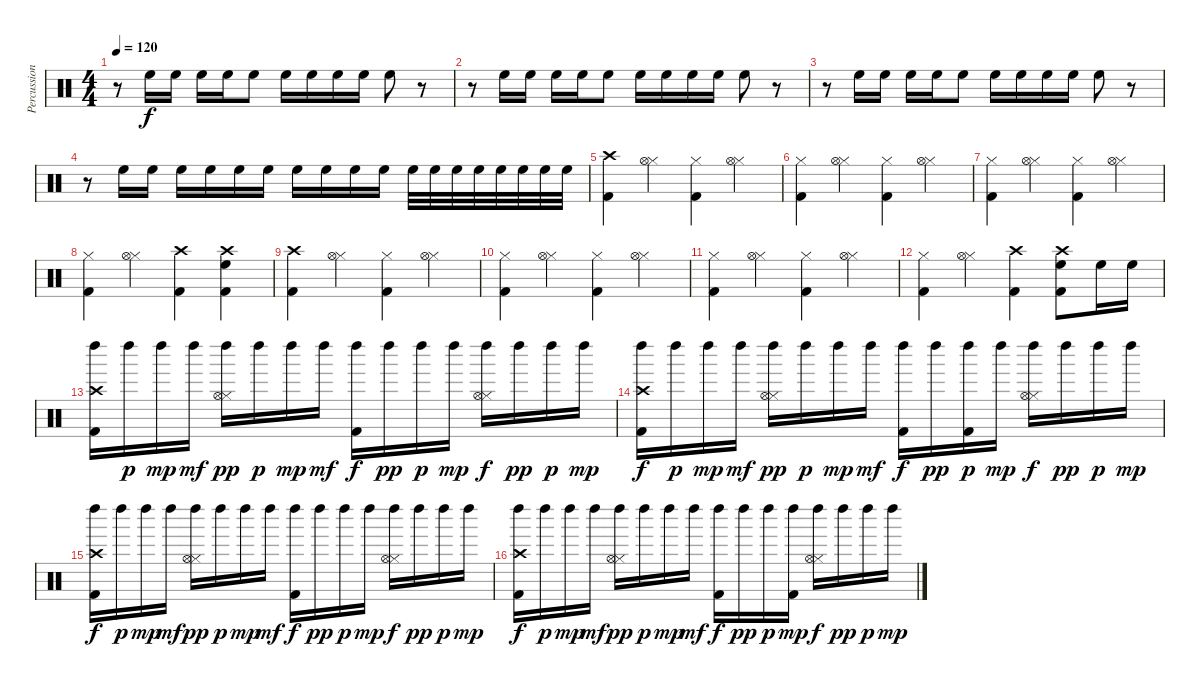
\track ("Percussion" "Percussion") {instrument percussion}
\staff {score}
\articulation defaults
\ts (4 4)
\tempo 120
\clef neutral
\ks c
r.8{dy f} "High Floor Tom (hit)".16 "High Floor Tom (hit)".16 "High Floor Tom (hit)".16 "High Floor Tom (hit)".16 "High Floor Tom (hit)".8 "High Floor Tom (hit)".16 "High Floor Tom (hit)".16 "High Floor Tom (hit)".16 "High Floor Tom (hit)".16 "High Floor Tom (hit)".8 r.8 |
r.8 "High Floor Tom (hit)".16 "High Floor Tom (hit)".16 "High Floor Tom (hit)".16 "High Floor Tom (hit)".16 "High Floor Tom (hit)".8 "High Floor Tom (hit)".16 "High Floor Tom (hit)".16 "High Floor Tom (hit)".16 "High Floor Tom (hit)".16 "High Floor Tom (hit)".8 r.8 |
r.8 "High Floor Tom (hit)".16 "High Floor Tom (hit)".16 "High Floor Tom (hit)".16 "High Floor Tom (hit)".16 "High Floor Tom (hit)".8 "High Floor Tom (hit)".16 "High Floor Tom (hit)".16 "High Floor Tom (hit)".16 "High Floor Tom (hit)".16 "High Floor Tom (hit)".8 r.8 |
r.8 "High Floor Tom (hit)".16 "High Floor Tom (hit)".16 "High Floor Tom (hit)".16 "High Floor Tom (hit)".16 "High Floor Tom (hit)".16 "High Floor Tom (hit)".16 "High Floor Tom (hit)".16 "High Floor Tom (hit)".16 "High Floor Tom (hit)".16 "High Floor Tom (hit)".16 "High Floor Tom (hit)".32 "High Floor Tom (hit)".32 "High Floor Tom (hit)".32 "High Floor Tom (hit)".32 "High Floor Tom (hit)".32 "High Floor Tom (hit)".32 "High Floor Tom (hit)".32 "High Floor Tom (hit)".32 |
("Kick (hit) 2" "Crash high (hit)").4 ("Hi-Hat (closed)" "Hi-Hat (open)").4 ("Kick (hit) 2" "Hi-Hat (closed)").4 ("Hi-Hat (closed)" "Hi-Hat (open)").4 |
("Kick (hit) 2" "Hi-Hat (closed)").4 ("Hi-Hat (closed)" "Hi-Hat (open)").4 ("Kick (hit) 2" "Hi-Hat (closed)").4 ("Hi-Hat (closed)" "Hi-Hat (open)").4 |
("Kick (hit) 2" "Hi-Hat (closed)").4 ("Hi-Hat (closed)" "Hi-Hat (open)").4 ("Kick (hit) 2" "Hi-Hat (closed)").4 ("Hi-Hat (closed)" "Hi-Hat (open)").4 |
("Kick (hit) 2" "Hi-Hat (closed)").4 ("Hi-Hat (closed)" "Hi-Hat (open)").4 ("Kick (hit) 2" "Crash high (hit)").4 ("Kick (hit) 2" "High Floor Tom (hit)" "Crash high (hit)").4 |
("Kick (hit) 2" "Crash high (hit)").4 ("Hi-Hat (closed)" "Hi-Hat (open)").4 ("Kick (hit) 2" "Hi-Hat (closed)").4 ("Hi-Hat (closed)" "Hi-Hat (open)").4 |
("Kick (hit) 2" "Hi-Hat (closed)").4 ("Hi-Hat (closed)" "Hi-Hat (open)").4 ("Kick (hit) 2" "Hi-Hat (closed)").4 ("Hi-Hat (closed)" "Hi-Hat (open)").4 |
("Kick (hit) 2" "Hi-Hat (closed)").4 ("Hi-Hat (closed)" "Hi-Hat (open)").4 ("Kick (hit) 2" "Hi-Hat (closed)").4 ("Hi-Hat (closed)" "Hi-Hat (open)").4 |
("Kick (hit) 2" "Hi-Hat (closed)").4 ("Hi-Hat (closed)" "Hi-Hat (open)").4 ("Kick (hit) 2" "Crash high (hit)").4 ("Kick (hit) 2" "High Floor Tom (hit)" "Crash high (hit)").8 "High Floor Tom (hit)".16 "High Floor Tom (hit)".16 |
("Kick (hit) 2" "Crash high (hit)" "Left Maraca (hit)").16 "Left Maraca (hit)".16{dy p} "Left Maraca (hit)".16{dy mp} "Left Maraca (hit)".16{dy mf} ("Hi-Hat (closed)" "Hi-Hat (open)" "Left Maraca (hit)").16{dy pp} "Left Maraca (hit)".16{dy p} "Left Maraca (hit)".16{dy mp} "Left Maraca (hit)".16{dy mf} ("Kick (hit) 2" "Left Maraca (hit)").16{dy f} "Left Maraca (hit)".16{dy pp} "Left Maraca (hit)".16{dy p} "Left Maraca (hit)".16{dy mp} ("Hi-Hat (closed)" "Hi-Hat (open)" "Left Maraca (hit)").16{dy f} "Left Maraca (hit)".16{dy pp} "Left Maraca (hit)".16{dy p} "Left Maraca (hit)".16{dy mp} |
("Kick (hit) 2" "Crash high (hit)" "Left Maraca (hit)").16{dy f} "Left Maraca (hit)".16{dy p} "Left Maraca (hit)".16{dy mp} "Left Maraca (hit)".16{dy mf} ("Hi-Hat (closed)" "Hi-Hat (open)" "Left Maraca (hit)").16{dy pp} "Left Maraca (hit)".16{dy p} "Left Maraca (hit)".16{dy mp} "Left Maraca (hit)".16{dy mf} ("Kick (hit) 2" "Left Maraca (hit)").16{dy f} "Left Maraca (hit)".16{dy pp} ("Kick (hit) 2" "Left Maraca (hit)").16{dy p} "Left Maraca (hit)".16{dy mp} ("Hi-Hat (closed)" "Hi-Hat (open)" "Left Maraca (hit)").16{dy f} "Left Maraca (hit)".16{dy pp} "Left Maraca (hit)".16{dy p} "Left Maraca (hit)".16{dy mp} |
("Kick (hit) 2" "Crash high (hit)" "Left Maraca (hit)").16{dy f} "Left Maraca (hit)".16{dy p} "Left Maraca (hit)".16{dy mp} "Left Maraca (hit)".16{dy mf} ("Hi-Hat (closed)" "Hi-Hat (open)" "Left Maraca (hit)").16{dy pp} "Left Maraca (hit)".16{dy p} "Left Maraca (hit)".16{dy mp} "Left Maraca (hit)".16{dy mf} ("Kick (hit) 2" "Left Maraca (hit)").16{dy f} "Left Maraca (hit)".16{dy pp} "Left Maraca (hit)".16{dy p} "Left Maraca (hit)".16{dy mp} ("Hi-Hat (closed)" "Hi-Hat (open)" "Left Maraca (hit)").16{dy f} "Left Maraca (hit)".16{dy pp} "Left Maraca (hit)".16{dy p} "Left Maraca (hit)".16{dy mp} |
("Kick (hit) 2" "Crash high (hit)" "Left Maraca (hit)").16{dy f} "Left Maraca (hit)".16{dy p} "Left Maraca (hit)".16{dy mp} "Left Maraca (hit)".16{dy mf} ("Hi-Hat (closed)" "Hi-Hat (open)" "Left Maraca (hit)").16{dy pp} "Left Maraca (hit)".16{dy p} "Left Maraca (hit)".16{dy mp} "Left Maraca (hit)".16{dy mf} ("Kick (hit) 2" "Left Maraca (hit)").16{dy f} "Left Maraca (hit)".16{dy pp} "Left Maraca (hit)".16{dy p} ("Kick (hit) 2" "Left Maraca (hit)").16{dy mp} ("Hi-Hat (closed)" "Hi-Hat (open)" "Left Maraca (hit)").16{dy f} "Left Maraca (hit)".16{dy pp} "Left Maraca (hit)".16{dy p} "Left Maraca (hit)".16{dy mp}
